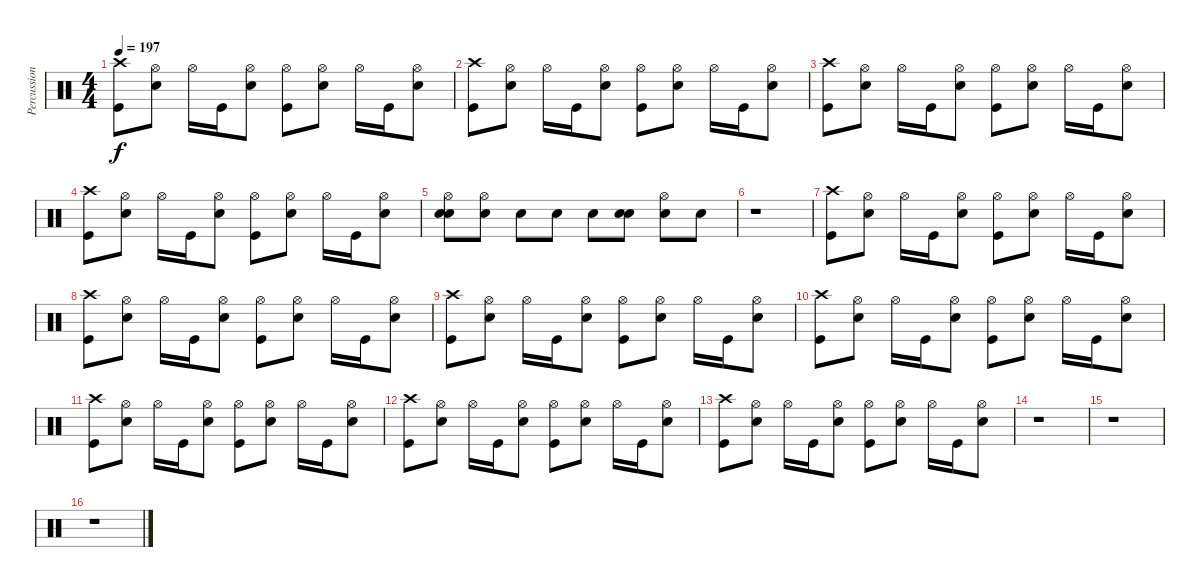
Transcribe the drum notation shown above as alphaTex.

\track ("Percussion" "Percussion") {instrument percussion}
\staff {score}
\articulation defaults
\ts (4 4)
\tempo 197
\clef neutral
\ks c
("Crash high (hit)" "Kick (hit)").8{dy f} ("Hi-Hat (open)" "Snare (hit) 2").8 "Hi-Hat (open)".16 "Kick (hit)".16 ("Hi-Hat (open)" "Snare (hit) 2").8 ("Hi-Hat (open)" "Kick (hit)").8 ("Hi-Hat (open)" "Snare (hit) 2").8 "Hi-Hat (open)".16 "Kick (hit)".16 ("Hi-Hat (open)" "Snare (hit) 2").8 |
("Crash high (hit)" "Kick (hit)").8 ("Hi-Hat (open)" "Snare (hit) 2").8 "Hi-Hat (open)".16 "Kick (hit)".16 ("Hi-Hat (open)" "Snare (hit) 2").8 ("Hi-Hat (open)" "Kick (hit)").8 ("Hi-Hat (open)" "Snare (hit) 2").8 "Hi-Hat (open)".16 "Kick (hit)".16 ("Hi-Hat (open)" "Snare (hit) 2").8 |
("Crash high (hit)" "Kick (hit)").8 ("Hi-Hat (open)" "Snare (hit) 2").8 "Hi-Hat (open)".16 "Kick (hit)".16 ("Hi-Hat (open)" "Snare (hit) 2").8 ("Hi-Hat (open)" "Kick (hit)").8 ("Hi-Hat (open)" "Snare (hit) 2").8 "Hi-Hat (open)".16 "Kick (hit)".16 ("Hi-Hat (open)" "Snare (hit) 2").8 |
("Crash high (hit)" "Kick (hit)").8 ("Hi-Hat (open)" "Snare (hit) 2").8 "Hi-Hat (open)".16 "Kick (hit)".16 ("Hi-Hat (open)" "Snare (hit) 2").8 ("Hi-Hat (open)" "Kick (hit)").8 ("Hi-Hat (open)" "Snare (hit) 2").8 "Hi-Hat (open)".16 "Kick (hit)".16 ("Hi-Hat (open)" "Snare (hit) 2").8 |
("Hi-Hat (open)" "Snare (hit) 2" "Snare (hit)"{x}).8 ("Hi-Hat (open)"{x} "Snare (hit)"{x}).8 "Snare (hit)"{x}.8 "Snare (hit)"{x}.8 "Snare (hit)"{x}.8 ("Snare (hit) 2" "Snare (hit)"{x}).8 ("Hi-Hat (open)" "Snare (hit)"{x}).8 "Snare (hit)"{x}.8 |
r.1 |
("Crash high (hit)" "Kick (hit)").8 ("Hi-Hat (open)" "Snare (hit) 2").8 "Hi-Hat (open)".16 "Kick (hit)".16 ("Hi-Hat (open)" "Snare (hit) 2").8 ("Hi-Hat (open)" "Kick (hit)").8 ("Hi-Hat (open)" "Snare (hit) 2").8 "Hi-Hat (open)".16 "Kick (hit)".16 ("Hi-Hat (open)" "Snare (hit) 2").8 |
("Crash high (hit)" "Kick (hit)").8 ("Hi-Hat (open)" "Snare (hit) 2").8 "Hi-Hat (open)".16 "Kick (hit)".16 ("Hi-Hat (open)" "Snare (hit) 2").8 ("Hi-Hat (open)" "Kick (hit)").8 ("Hi-Hat (open)" "Snare (hit) 2").8 "Hi-Hat (open)".16 "Kick (hit)".16 ("Hi-Hat (open)" "Snare (hit) 2").8 |
("Crash high (hit)" "Kick (hit)").8 ("Hi-Hat (open)" "Snare (hit) 2").8 "Hi-Hat (open)".16 "Kick (hit)".16 ("Hi-Hat (open)" "Snare (hit) 2").8 ("Hi-Hat (open)" "Kick (hit)").8 ("Hi-Hat (open)" "Snare (hit) 2").8 "Hi-Hat (open)".16 "Kick (hit)".16 ("Hi-Hat (open)" "Snare (hit) 2").8 |
("Crash high (hit)" "Kick (hit)").8 ("Hi-Hat (open)" "Snare (hit) 2").8 "Hi-Hat (open)".16 "Kick (hit)".16 ("Hi-Hat (open)" "Snare (hit) 2").8 ("Hi-Hat (open)" "Kick (hit)").8 ("Hi-Hat (open)" "Snare (hit) 2").8 "Hi-Hat (open)".16 "Kick (hit)".16 ("Hi-Hat (open)" "Snare (hit) 2").8 |
("Crash high (hit)" "Kick (hit)").8 ("Hi-Hat (open)" "Snare (hit) 2").8 "Hi-Hat (open)".16 "Kick (hit)".16 ("Hi-Hat (open)" "Snare (hit) 2").8 ("Hi-Hat (open)" "Kick (hit)").8 ("Hi-Hat (open)" "Snare (hit) 2").8 "Hi-Hat (open)".16 "Kick (hit)".16 ("Hi-Hat (open)" "Snare (hit) 2").8 |
("Crash high (hit)" "Kick (hit)").8 ("Hi-Hat (open)" "Snare (hit) 2").8 "Hi-Hat (open)".16 "Kick (hit)".16 ("Hi-Hat (open)" "Snare (hit) 2").8 ("Hi-Hat (open)" "Kick (hit)").8 ("Hi-Hat (open)" "Snare (hit) 2").8 "Hi-Hat (open)".16 "Kick (hit)".16 ("Hi-Hat (open)" "Snare (hit) 2").8 |
("Crash high (hit)" "Kick (hit)").8 ("Hi-Hat (open)" "Snare (hit) 2").8 "Hi-Hat (open)".16 "Kick (hit)".16 ("Hi-Hat (open)" "Snare (hit) 2").8 ("Hi-Hat (open)" "Kick (hit)").8 ("Hi-Hat (open)" "Snare (hit) 2").8 "Hi-Hat (open)".16 "Kick (hit)".16 ("Hi-Hat (open)" "Snare (hit) 2").8 |
r.1 |
r.1 |
r.1
